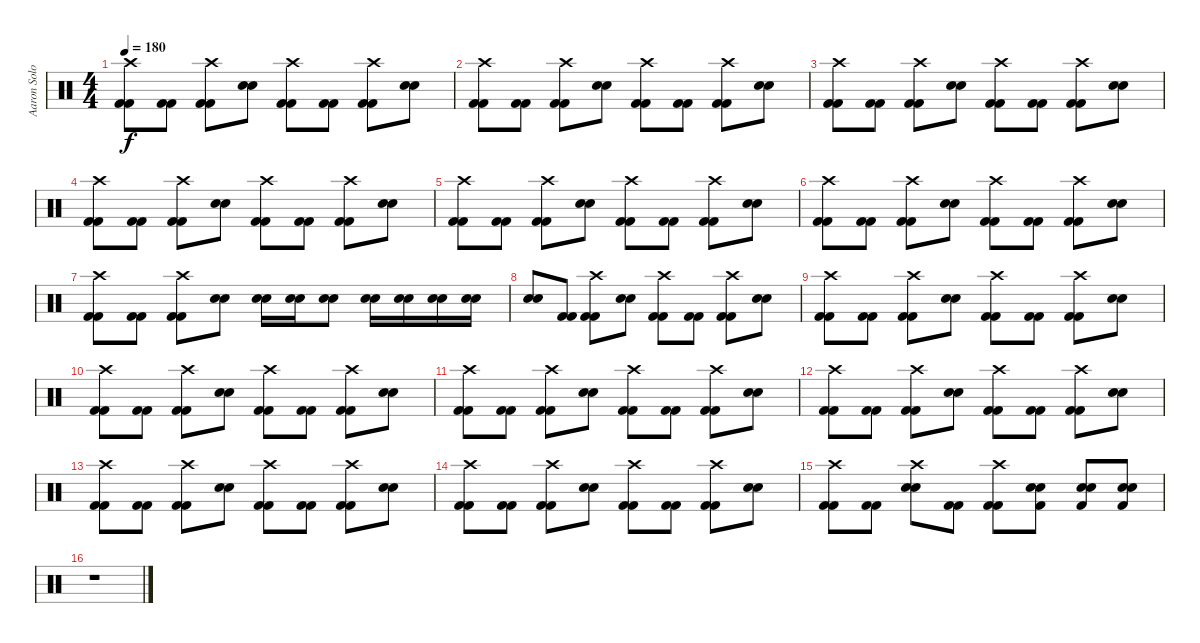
\track ("Aaron Solowoniuk" "Aaron Solo") {instrument percussion}
\staff {score}
\articulation defaults
\ts (4 4)
\tempo 180
\clef neutral
\ks c
("Crash high (hit)" "Kick (hit) 2" "Kick (hit) 2").8{dy f} ("Kick (hit) 2" "Kick (hit) 2").8 ("Crash high (hit)" "Kick (hit) 2" "Kick (hit) 2").8 ("Electric Snare (hit)" "Electric Snare (hit)").8 ("Crash high (hit)" "Kick (hit) 2" "Kick (hit) 2").8 ("Kick (hit) 2" "Kick (hit) 2").8 ("Crash high (hit)" "Kick (hit) 2" "Kick (hit) 2").8 ("Electric Snare (hit)" "Electric Snare (hit)").8 |
("Crash high (hit)" "Kick (hit) 2" "Kick (hit) 2").8 ("Kick (hit) 2" "Kick (hit) 2").8 ("Crash high (hit)" "Kick (hit) 2" "Kick (hit) 2").8 ("Electric Snare (hit)" "Electric Snare (hit)").8 ("Crash high (hit)" "Kick (hit) 2" "Kick (hit) 2").8 ("Kick (hit) 2" "Kick (hit) 2").8 ("Crash high (hit)" "Kick (hit) 2" "Kick (hit) 2").8 ("Electric Snare (hit)" "Electric Snare (hit)").8 |
("Crash high (hit)" "Kick (hit) 2" "Kick (hit) 2").8 ("Kick (hit) 2" "Kick (hit) 2").8 ("Crash high (hit)" "Kick (hit) 2" "Kick (hit) 2").8 ("Electric Snare (hit)" "Electric Snare (hit)").8 ("Crash high (hit)" "Kick (hit) 2" "Kick (hit) 2").8 ("Kick (hit) 2" "Kick (hit) 2").8 ("Crash high (hit)" "Kick (hit) 2" "Kick (hit) 2").8 ("Electric Snare (hit)" "Electric Snare (hit)").8 |
("Crash high (hit)" "Kick (hit) 2" "Kick (hit) 2").8 ("Kick (hit) 2" "Kick (hit) 2").8 ("Crash high (hit)" "Kick (hit) 2" "Kick (hit) 2").8 ("Electric Snare (hit)" "Electric Snare (hit)").8 ("Crash high (hit)" "Kick (hit) 2" "Kick (hit) 2").8 ("Kick (hit) 2" "Kick (hit) 2").8 ("Crash high (hit)" "Kick (hit) 2" "Kick (hit) 2").8 ("Electric Snare (hit)" "Electric Snare (hit)").8 |
("Crash high (hit)" "Kick (hit) 2" "Kick (hit) 2").8 ("Kick (hit) 2" "Kick (hit) 2").8 ("Crash high (hit)" "Kick (hit) 2" "Kick (hit) 2").8 ("Electric Snare (hit)" "Electric Snare (hit)").8 ("Crash high (hit)" "Kick (hit) 2" "Kick (hit) 2").8 ("Kick (hit) 2" "Kick (hit) 2").8 ("Crash high (hit)" "Kick (hit) 2" "Kick (hit) 2").8 ("Electric Snare (hit)" "Electric Snare (hit)").8 |
("Crash high (hit)" "Kick (hit) 2" "Kick (hit) 2").8 ("Kick (hit) 2" "Kick (hit) 2").8 ("Crash high (hit)" "Kick (hit) 2" "Kick (hit) 2").8 ("Electric Snare (hit)" "Electric Snare (hit)").8 ("Crash high (hit)" "Kick (hit) 2" "Kick (hit) 2").8 ("Kick (hit) 2" "Kick (hit) 2").8 ("Crash high (hit)" "Kick (hit) 2" "Kick (hit) 2").8 ("Electric Snare (hit)" "Electric Snare (hit)").8 |
("Crash high (hit)" "Kick (hit) 2" "Kick (hit) 2").8 ("Kick (hit) 2" "Kick (hit) 2").8 ("Crash high (hit)" "Kick (hit) 2" "Kick (hit) 2").8 ("Electric Snare (hit)" "Electric Snare (hit)").8 ("Electric Snare (hit)" "Electric Snare (hit)").16 ("Electric Snare (hit)" "Electric Snare (hit)").16 ("Electric Snare (hit)" "Electric Snare (hit)").8 ("Electric Snare (hit)" "Electric Snare (hit)").16 ("Electric Snare (hit)" "Electric Snare (hit)").16 ("Electric Snare (hit)" "Electric Snare (hit)").16 ("Electric Snare (hit)" "Electric Snare (hit)").16 |
("Electric Snare (hit)" "Electric Snare (hit)").8 ("Kick (hit) 2" "Kick (hit) 2").8 ("Crash high (hit)" "Kick (hit) 2" "Kick (hit) 2").8 ("Electric Snare (hit)" "Electric Snare (hit)").8 ("Crash high (hit)" "Kick (hit) 2" "Kick (hit) 2").8 ("Kick (hit) 2" "Kick (hit) 2").8 ("Crash high (hit)" "Kick (hit) 2" "Kick (hit) 2").8 ("Electric Snare (hit)" "Electric Snare (hit)").8 |
("Crash high (hit)" "Kick (hit) 2" "Kick (hit) 2").8 ("Kick (hit) 2" "Kick (hit) 2").8 ("Crash high (hit)" "Kick (hit) 2" "Kick (hit) 2").8 ("Electric Snare (hit)" "Electric Snare (hit)").8 ("Crash high (hit)" "Kick (hit) 2" "Kick (hit) 2").8 ("Kick (hit) 2" "Kick (hit) 2").8 ("Crash high (hit)" "Kick (hit) 2" "Kick (hit) 2").8 ("Electric Snare (hit)" "Electric Snare (hit)").8 |
("Crash high (hit)" "Kick (hit) 2" "Kick (hit) 2").8 ("Kick (hit) 2" "Kick (hit) 2").8 ("Crash high (hit)" "Kick (hit) 2" "Kick (hit) 2").8 ("Electric Snare (hit)" "Electric Snare (hit)").8 ("Crash high (hit)" "Kick (hit) 2" "Kick (hit) 2").8 ("Kick (hit) 2" "Kick (hit) 2").8 ("Crash high (hit)" "Kick (hit) 2" "Kick (hit) 2").8 ("Electric Snare (hit)" "Electric Snare (hit)").8 |
("Crash high (hit)" "Kick (hit) 2" "Kick (hit) 2").8 ("Kick (hit) 2" "Kick (hit) 2").8 ("Crash high (hit)" "Kick (hit) 2" "Kick (hit) 2").8 ("Electric Snare (hit)" "Electric Snare (hit)").8 ("Crash high (hit)" "Kick (hit) 2" "Kick (hit) 2").8 ("Kick (hit) 2" "Kick (hit) 2").8 ("Crash high (hit)" "Kick (hit) 2" "Kick (hit) 2").8 ("Electric Snare (hit)" "Electric Snare (hit)").8 |
("Crash high (hit)" "Kick (hit) 2" "Kick (hit) 2").8 ("Kick (hit) 2" "Kick (hit) 2").8 ("Crash high (hit)" "Kick (hit) 2" "Kick (hit) 2").8 ("Electric Snare (hit)" "Electric Snare (hit)").8 ("Crash high (hit)" "Kick (hit) 2" "Kick (hit) 2").8 ("Kick (hit) 2" "Kick (hit) 2").8 ("Crash high (hit)" "Kick (hit) 2" "Kick (hit) 2").8 ("Electric Snare (hit)" "Electric Snare (hit)").8 |
("Crash high (hit)" "Kick (hit) 2" "Kick (hit) 2").8 ("Kick (hit) 2" "Kick (hit) 2").8 ("Crash high (hit)" "Kick (hit) 2" "Kick (hit) 2").8 ("Electric Snare (hit)" "Electric Snare (hit)").8 ("Crash high (hit)" "Kick (hit) 2" "Kick (hit) 2").8 ("Kick (hit) 2" "Kick (hit) 2").8 ("Crash high (hit)" "Kick (hit) 2" "Kick (hit) 2").8 ("Electric Snare (hit)" "Electric Snare (hit)").8 |
("Crash high (hit)" "Kick (hit) 2" "Kick (hit) 2").8 ("Kick (hit) 2" "Kick (hit) 2").8 ("Crash high (hit)" "Kick (hit) 2" "Kick (hit) 2").8 ("Electric Snare (hit)" "Electric Snare (hit)").8 ("Crash high (hit)" "Kick (hit) 2" "Kick (hit) 2").8 ("Kick (hit) 2" "Kick (hit) 2").8 ("Crash high (hit)" "Kick (hit) 2" "Kick (hit) 2").8 ("Electric Snare (hit)" "Electric Snare (hit)").8 |
("Crash high (hit)" "Kick (hit) 2" "Kick (hit) 2").8 ("Kick (hit) 2" "Kick (hit) 2").8 ("Crash high (hit)" "Electric Snare (hit)" "Electric Snare (hit)").8 ("Kick (hit) 2" "Kick (hit) 2").8 ("Crash high (hit)" "Kick (hit) 2" "Kick (hit) 2").8 ("Electric Snare (hit)" "Electric Snare (hit)" "Kick (hit) 2").8 ("Electric Snare (hit)" "Electric Snare (hit)" "Kick (hit) 2").8 ("Electric Snare (hit)" "Electric Snare (hit)" "Kick (hit) 2").8 |
r.1
